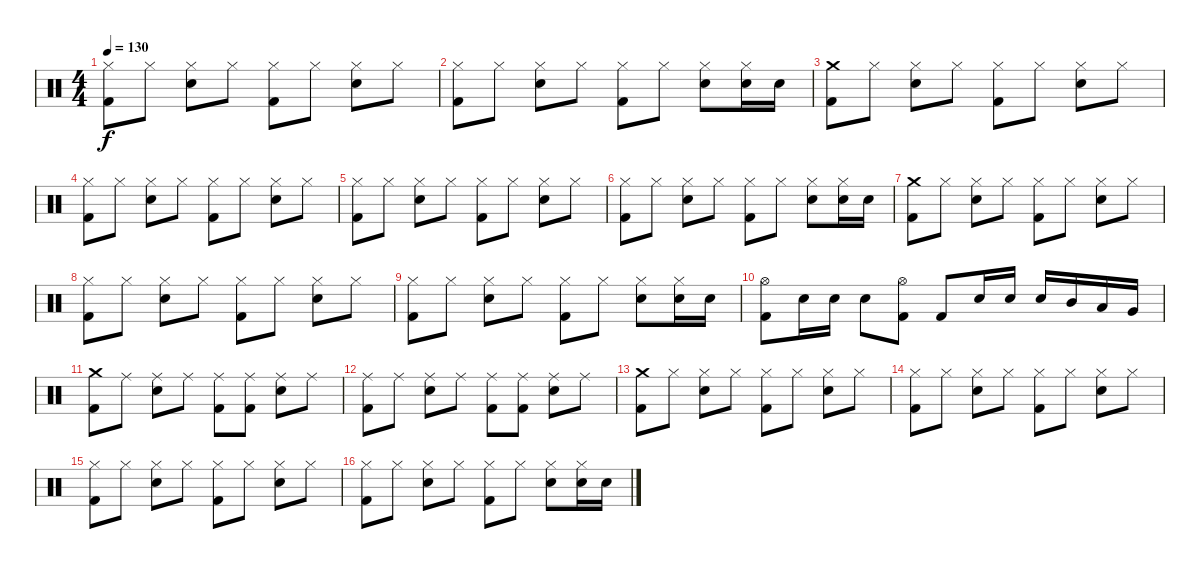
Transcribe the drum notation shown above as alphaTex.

\track "" {instrument percussion}
\staff {score}
\articulation defaults
\ts (4 4)
\tempo 130
\clef neutral
\ks c
("Hi-Hat (closed)" "Kick (hit) 2").8{dy f} "Hi-Hat (closed)".8 ("Hi-Hat (closed)" "Electric Snare (hit)").8 "Hi-Hat (closed)".8 ("Hi-Hat (closed)" "Kick (hit) 2").8 "Hi-Hat (closed)".8 ("Hi-Hat (closed)" "Electric Snare (hit)").8 "Hi-Hat (closed)".8 |
("Hi-Hat (closed)" "Kick (hit) 2").8 "Hi-Hat (closed)".8 ("Hi-Hat (closed)" "Electric Snare (hit)").8 "Hi-Hat (closed)".8 ("Hi-Hat (closed)" "Kick (hit) 2").8 "Hi-Hat (closed)".8 ("Hi-Hat (closed)" "Electric Snare (hit)").8 ("Hi-Hat (closed)" "Electric Snare (hit)").16 "Electric Snare (hit)".16 |
("Crash medium (hit)" "Kick (hit) 2").8 "Hi-Hat (closed)".8 ("Hi-Hat (closed)" "Electric Snare (hit)").8 "Hi-Hat (closed)".8 ("Hi-Hat (closed)" "Kick (hit) 2").8 "Hi-Hat (closed)".8 ("Hi-Hat (closed)" "Electric Snare (hit)").8 "Hi-Hat (closed)".8 |
("Hi-Hat (closed)" "Kick (hit) 2").8 "Hi-Hat (closed)".8 ("Hi-Hat (closed)" "Electric Snare (hit)").8 "Hi-Hat (closed)".8 ("Hi-Hat (closed)" "Kick (hit) 2").8 "Hi-Hat (closed)".8 ("Hi-Hat (closed)" "Electric Snare (hit)").8 "Hi-Hat (closed)".8 |
("Hi-Hat (closed)" "Kick (hit) 2").8 "Hi-Hat (closed)".8 ("Hi-Hat (closed)" "Electric Snare (hit)").8 "Hi-Hat (closed)".8 ("Hi-Hat (closed)" "Kick (hit) 2").8 "Hi-Hat (closed)".8 ("Hi-Hat (closed)" "Electric Snare (hit)").8 "Hi-Hat (closed)".8 |
("Hi-Hat (closed)" "Kick (hit) 2").8 "Hi-Hat (closed)".8 ("Hi-Hat (closed)" "Electric Snare (hit)").8 "Hi-Hat (closed)".8 ("Hi-Hat (closed)" "Kick (hit) 2").8 "Hi-Hat (closed)".8 ("Hi-Hat (closed)" "Electric Snare (hit)").8 ("Hi-Hat (closed)" "Electric Snare (hit)").16 "Electric Snare (hit)".16 |
("Crash medium (hit)" "Kick (hit) 2").8 "Hi-Hat (closed)".8 ("Hi-Hat (closed)" "Electric Snare (hit)").8 "Hi-Hat (closed)".8 ("Hi-Hat (closed)" "Kick (hit) 2").8 "Hi-Hat (closed)".8 ("Hi-Hat (closed)" "Electric Snare (hit)").8 "Hi-Hat (closed)".8 |
("Hi-Hat (closed)" "Kick (hit) 2").8 "Hi-Hat (closed)".8 ("Hi-Hat (closed)" "Electric Snare (hit)").8 "Hi-Hat (closed)".8 ("Hi-Hat (closed)" "Kick (hit) 2").8 "Hi-Hat (closed)".8 ("Hi-Hat (closed)" "Electric Snare (hit)").8 "Hi-Hat (closed)".8 |
("Hi-Hat (closed)" "Kick (hit) 2").8 "Hi-Hat (closed)".8 ("Hi-Hat (closed)" "Electric Snare (hit)").8 "Hi-Hat (closed)".8 ("Hi-Hat (closed)" "Kick (hit) 2").8 "Hi-Hat (closed)".8 ("Hi-Hat (closed)" "Electric Snare (hit)").8 ("Hi-Hat (closed)" "Electric Snare (hit)").16 "Electric Snare (hit)".16 |
("Hi-Hat (open)" "Kick (hit) 2").8 "Electric Snare (hit)".16 "Electric Snare (hit)".16 "Electric Snare (hit)".8 ("Hi-Hat (open)" "Kick (hit) 2").8 "Kick (hit) 2".8 "Electric Snare (hit)".16 "Electric Snare (hit)".16 "Electric Snare (hit)".16 "Mid Tom (hit)".16 "Low Tom (hit)".16 "Very Low Tom (hit)".16 |
("Crash medium (hit)" "Kick (hit) 2").8 "Ride (middle)".8 ("Ride (middle)" "Electric Snare (hit)").8 "Ride (middle)".8 ("Ride (middle)" "Kick (hit) 2").8 ("Ride (middle)" "Kick (hit) 2").8 ("Ride (middle)" "Electric Snare (hit)").8 "Ride (middle)".8 |
("Ride (middle)" "Kick (hit) 2").8 "Ride (middle)".8 ("Ride (middle)" "Electric Snare (hit)").8 "Ride (middle)".8 ("Ride (middle)" "Kick (hit) 2").8 ("Ride (middle)" "Kick (hit) 2").8 ("Ride (middle)" "Electric Snare (hit)").8 "Ride (middle)".8 |
("Crash medium (hit)" "Kick (hit) 2").8 "Hi-Hat (closed)".8 ("Hi-Hat (closed)" "Electric Snare (hit)").8 "Hi-Hat (closed)".8 ("Hi-Hat (closed)" "Kick (hit) 2").8 "Hi-Hat (closed)".8 ("Hi-Hat (closed)" "Electric Snare (hit)").8 "Hi-Hat (closed)".8 |
("Hi-Hat (closed)" "Kick (hit) 2").8 "Hi-Hat (closed)".8 ("Hi-Hat (closed)" "Electric Snare (hit)").8 "Hi-Hat (closed)".8 ("Hi-Hat (closed)" "Kick (hit) 2").8 "Hi-Hat (closed)".8 ("Hi-Hat (closed)" "Electric Snare (hit)").8 "Hi-Hat (closed)".8 |
("Hi-Hat (closed)" "Kick (hit) 2").8 "Hi-Hat (closed)".8 ("Hi-Hat (closed)" "Electric Snare (hit)").8 "Hi-Hat (closed)".8 ("Hi-Hat (closed)" "Kick (hit) 2").8 "Hi-Hat (closed)".8 ("Hi-Hat (closed)" "Electric Snare (hit)").8 "Hi-Hat (closed)".8 |
("Hi-Hat (closed)" "Kick (hit) 2").8 "Hi-Hat (closed)".8 ("Hi-Hat (closed)" "Electric Snare (hit)").8 "Hi-Hat (closed)".8 ("Hi-Hat (closed)" "Kick (hit) 2").8 "Hi-Hat (closed)".8 ("Hi-Hat (closed)" "Electric Snare (hit)").8 ("Hi-Hat (closed)" "Electric Snare (hit)").16 "Electric Snare (hit)".16
